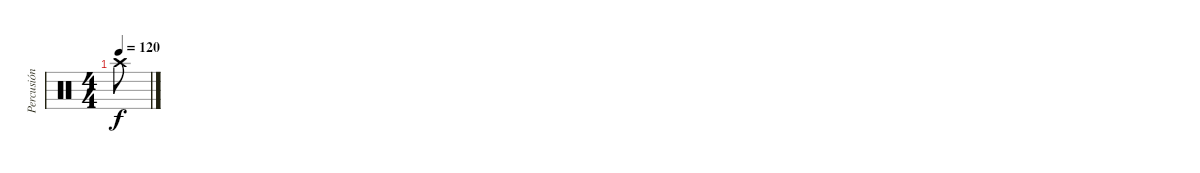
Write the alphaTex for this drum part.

\track ("Percusión" "Percusión") {instrument percussion}
\staff {score}
\articulation defaults
\ts (4 4)
\tempo 120
\clef neutral
\ks c "Crash high (hit)".8{dy f}
